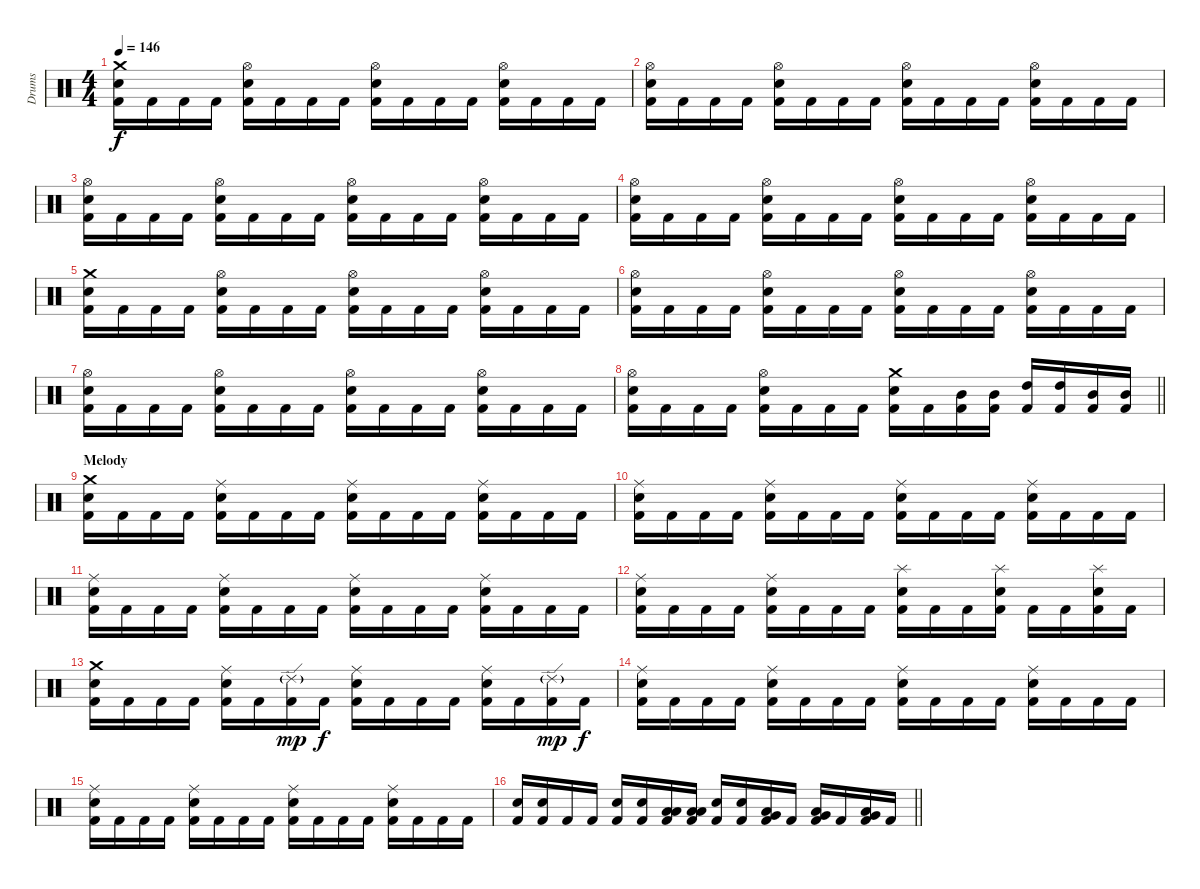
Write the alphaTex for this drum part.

\track ("Drums" "Drums") {instrument percussion}
\staff {score}
\articulation defaults
\ts (4 4)
\tempo 146
\clef neutral
\ks c
("Crash medium (hit)" "Electric Snare (hit)" "Kick (hit) 2").16{dy f} "Kick (hit) 2".16 "Kick (hit) 2".16 "Kick (hit) 2".16 ("Hi-Hat (open)" "Electric Snare (hit)" "Kick (hit) 2").16 "Kick (hit) 2".16 "Kick (hit) 2".16 "Kick (hit) 2".16 ("Hi-Hat (open)" "Electric Snare (hit)" "Kick (hit) 2").16 "Kick (hit) 2".16 "Kick (hit) 2".16 "Kick (hit) 2".16 ("Hi-Hat (open)" "Electric Snare (hit)" "Kick (hit) 2").16 "Kick (hit) 2".16 "Kick (hit) 2".16 "Kick (hit) 2".16 |
("Hi-Hat (open)" "Electric Snare (hit)" "Kick (hit) 2").16 "Kick (hit) 2".16 "Kick (hit) 2".16 "Kick (hit) 2".16 ("Hi-Hat (open)" "Electric Snare (hit)" "Kick (hit) 2").16 "Kick (hit) 2".16 "Kick (hit) 2".16 "Kick (hit) 2".16 ("Hi-Hat (open)" "Electric Snare (hit)" "Kick (hit) 2").16 "Kick (hit) 2".16 "Kick (hit) 2".16 "Kick (hit) 2".16 ("Hi-Hat (open)" "Electric Snare (hit)" "Kick (hit) 2").16 "Kick (hit) 2".16 "Kick (hit) 2".16 "Kick (hit) 2".16 |
("Hi-Hat (open)" "Electric Snare (hit)" "Kick (hit) 2").16 "Kick (hit) 2".16 "Kick (hit) 2".16 "Kick (hit) 2".16 ("Hi-Hat (open)" "Electric Snare (hit)" "Kick (hit) 2").16 "Kick (hit) 2".16 "Kick (hit) 2".16 "Kick (hit) 2".16 ("Hi-Hat (open)" "Electric Snare (hit)" "Kick (hit) 2").16 "Kick (hit) 2".16 "Kick (hit) 2".16 "Kick (hit) 2".16 ("Hi-Hat (open)" "Electric Snare (hit)" "Kick (hit) 2").16 "Kick (hit) 2".16 "Kick (hit) 2".16 "Kick (hit) 2".16 |
("Hi-Hat (open)" "Electric Snare (hit)" "Kick (hit) 2").16 "Kick (hit) 2".16 "Kick (hit) 2".16 "Kick (hit) 2".16 ("Hi-Hat (open)" "Electric Snare (hit)" "Kick (hit) 2").16 "Kick (hit) 2".16 "Kick (hit) 2".16 "Kick (hit) 2".16 ("Hi-Hat (open)" "Electric Snare (hit)" "Kick (hit) 2").16 "Kick (hit) 2".16 "Kick (hit) 2".16 "Kick (hit) 2".16 ("Hi-Hat (open)" "Electric Snare (hit)" "Kick (hit) 2").16 "Kick (hit) 2".16 "Kick (hit) 2".16 "Kick (hit) 2".16 |
("Crash medium (hit)" "Electric Snare (hit)" "Kick (hit) 2").16 "Kick (hit) 2".16 "Kick (hit) 2".16 "Kick (hit) 2".16 ("Hi-Hat (open)" "Electric Snare (hit)" "Kick (hit) 2").16 "Kick (hit) 2".16 "Kick (hit) 2".16 "Kick (hit) 2".16 ("Hi-Hat (open)" "Electric Snare (hit)" "Kick (hit) 2").16 "Kick (hit) 2".16 "Kick (hit) 2".16 "Kick (hit) 2".16 ("Hi-Hat (open)" "Electric Snare (hit)" "Kick (hit) 2").16 "Kick (hit) 2".16 "Kick (hit) 2".16 "Kick (hit) 2".16 |
("Hi-Hat (open)" "Electric Snare (hit)" "Kick (hit) 2").16 "Kick (hit) 2".16 "Kick (hit) 2".16 "Kick (hit) 2".16 ("Hi-Hat (open)" "Electric Snare (hit)" "Kick (hit) 2").16 "Kick (hit) 2".16 "Kick (hit) 2".16 "Kick (hit) 2".16 ("Hi-Hat (open)" "Electric Snare (hit)" "Kick (hit) 2").16 "Kick (hit) 2".16 "Kick (hit) 2".16 "Kick (hit) 2".16 ("Hi-Hat (open)" "Electric Snare (hit)" "Kick (hit) 2").16 "Kick (hit) 2".16 "Kick (hit) 2".16 "Kick (hit) 2".16 |
("Hi-Hat (open)" "Electric Snare (hit)" "Kick (hit) 2").16 "Kick (hit) 2".16 "Kick (hit) 2".16 "Kick (hit) 2".16 ("Hi-Hat (open)" "Electric Snare (hit)" "Kick (hit) 2").16 "Kick (hit) 2".16 "Kick (hit) 2".16 "Kick (hit) 2".16 ("Hi-Hat (open)" "Electric Snare (hit)" "Kick (hit) 2").16 "Kick (hit) 2".16 "Kick (hit) 2".16 "Kick (hit) 2".16 ("Hi-Hat (open)" "Electric Snare (hit)" "Kick (hit) 2").16 "Kick (hit) 2".16 "Kick (hit) 2".16 "Kick (hit) 2".16 |
\barLineRight lightlight
("Hi-Hat (open)" "Electric Snare (hit)" "Kick (hit) 2").16 "Kick (hit) 2".16 "Kick (hit) 2".16 "Kick (hit) 2".16 ("Hi-Hat (open)" "Electric Snare (hit)" "Kick (hit) 2").16 "Kick (hit) 2".16 "Kick (hit) 2".16 "Kick (hit) 2".16 ("Crash medium (hit)" "Electric Snare (hit)" "Kick (hit) 2").16 "Kick (hit) 2".16 ("Mid Tom (hit)" "Kick (hit) 2").16 ("Mid Tom (hit)" "Kick (hit) 2").16 ("High Tom (hit)" "Kick (hit) 2").16 ("High Tom (hit)" "Kick (hit) 2").16 ("Mid Tom (hit)" "Kick (hit) 2").16 ("Mid Tom (hit)" "Kick (hit) 2").16 |
\section ("" "Melody")
("Crash medium (hit)" "Electric Snare (hit)" "Kick (hit) 2").16 "Kick (hit) 2".16 "Kick (hit) 2".16 "Kick (hit) 2".16 ("Ride (middle)" "Electric Snare (hit)" "Kick (hit) 2").16 "Kick (hit) 2".16 "Kick (hit) 2".16 "Kick (hit) 2".16 ("Ride (middle)" "Electric Snare (hit)" "Kick (hit) 2").16 "Kick (hit) 2".16 "Kick (hit) 2".16 "Kick (hit) 2".16 ("Ride (middle)" "Electric Snare (hit)" "Kick (hit) 2").16 "Kick (hit) 2".16 "Kick (hit) 2".16 "Kick (hit) 2".16 |
("Ride (middle)" "Electric Snare (hit)" "Kick (hit) 2").16 "Kick (hit) 2".16 "Kick (hit) 2".16 "Kick (hit) 2".16 ("Ride (middle)" "Electric Snare (hit)" "Kick (hit) 2").16 "Kick (hit) 2".16 "Kick (hit) 2".16 "Kick (hit) 2".16 ("Ride (middle)" "Electric Snare (hit)" "Kick (hit) 2").16 "Kick (hit) 2".16 "Kick (hit) 2".16 "Kick (hit) 2".16 ("Ride (middle)" "Electric Snare (hit)" "Kick (hit) 2").16 "Kick (hit) 2".16 "Kick (hit) 2".16 "Kick (hit) 2".16 |
("Ride (middle)" "Electric Snare (hit)" "Kick (hit) 2").16 "Kick (hit) 2".16 "Kick (hit) 2".16 "Kick (hit) 2".16 ("Ride (middle)" "Electric Snare (hit)" "Kick (hit) 2").16 "Kick (hit) 2".16 "Kick (hit) 2".16 "Kick (hit) 2".16 ("Ride (middle)" "Electric Snare (hit)" "Kick (hit) 2").16 "Kick (hit) 2".16 "Kick (hit) 2".16 "Kick (hit) 2".16 ("Ride (middle)" "Electric Snare (hit)" "Kick (hit) 2").16 "Kick (hit) 2".16 "Kick (hit) 2".16 "Kick (hit) 2".16 |
("Ride (middle)" "Electric Snare (hit)" "Kick (hit) 2").16 "Kick (hit) 2".16 "Kick (hit) 2".16 "Kick (hit) 2".16 ("Ride (middle)" "Electric Snare (hit)" "Kick (hit) 2").16 "Kick (hit) 2".16 "Kick (hit) 2".16 "Kick (hit) 2".16 ("Splash (hit)" "Electric Snare (hit)" "Kick (hit) 2").16 "Kick (hit) 2".16 "Kick (hit) 2".16 ("Splash (hit)" "Electric Snare (hit)" "Kick (hit) 2").16 "Kick (hit) 2".16 "Kick (hit) 2".16 ("Splash (hit)" "Electric Snare (hit)" "Kick (hit) 2").16 "Kick (hit) 2".16 |
("Crash medium (hit)" "Electric Snare (hit)" "Kick (hit) 2").16 "Kick (hit) 2".16 "Kick (hit) 2".16 "Kick (hit) 2".16 ("Ride (middle)" "Electric Snare (hit)" "Kick (hit) 2").16 "Kick (hit) 2".16 ("Ride (edge) 2"{g} "Kick (hit) 2").16{dy mp} "Kick (hit) 2".16{dy f} ("Ride (middle)" "Electric Snare (hit)" "Kick (hit) 2").16 "Kick (hit) 2".16 "Kick (hit) 2".16 "Kick (hit) 2".16 ("Ride (middle)" "Electric Snare (hit)" "Kick (hit) 2").16 "Kick (hit) 2".16 ("Ride (edge) 2"{g} "Kick (hit) 2").16{dy mp} "Kick (hit) 2".16{dy f} |
("Ride (middle)" "Electric Snare (hit)" "Kick (hit) 2").16 "Kick (hit) 2".16 "Kick (hit) 2".16 "Kick (hit) 2".16 ("Ride (middle)" "Electric Snare (hit)" "Kick (hit) 2").16 "Kick (hit) 2".16 "Kick (hit) 2".16 "Kick (hit) 2".16 ("Ride (middle)" "Electric Snare (hit)" "Kick (hit) 2").16 "Kick (hit) 2".16 "Kick (hit) 2".16 "Kick (hit) 2".16 ("Ride (middle)" "Electric Snare (hit)" "Kick (hit) 2").16 "Kick (hit) 2".16 "Kick (hit) 2".16 "Kick (hit) 2".16 |
("Ride (middle)" "Electric Snare (hit)" "Kick (hit) 2").16 "Kick (hit) 2".16 "Kick (hit) 2".16 "Kick (hit) 2".16 ("Ride (middle)" "Electric Snare (hit)" "Kick (hit) 2").16 "Kick (hit) 2".16 "Kick (hit) 2".16 "Kick (hit) 2".16 ("Ride (middle)" "Electric Snare (hit)" "Kick (hit) 2").16 "Kick (hit) 2".16 "Kick (hit) 2".16 "Kick (hit) 2".16 ("Ride (middle)" "Electric Snare (hit)" "Kick (hit) 2").16 "Kick (hit) 2".16 "Kick (hit) 2".16 "Kick (hit) 2".16 |
\barLineRight lightlight
("Electric Snare (hit)" "Kick (hit) 2").16 ("Electric Snare (hit)" "Kick (hit) 2").16 "Kick (hit) 2".16 "Kick (hit) 2".16 ("Electric Snare (hit)" "Kick (hit) 2").16 ("Electric Snare (hit)" "Kick (hit) 2").16 ("Low Tom (hit)" "Low Tom (hit)" "Kick (hit) 2").16 ("Low Tom (hit)" "Low Tom (hit)" "Kick (hit) 2").16 ("Electric Snare (hit)" "Kick (hit) 2").16 ("Electric Snare (hit)" "Kick (hit) 2").16 ("Low Tom (hit)" "Very Low Tom (hit)" "Kick (hit) 2").16 "Kick (hit) 2".16 ("Low Tom (hit)" "Very Low Tom (hit)" "Kick (hit) 2").16 "Kick (hit) 2".16 ("Low Tom (hit)" "Very Low Tom (hit)" "Kick (hit) 2").16 "Kick (hit) 2".16
